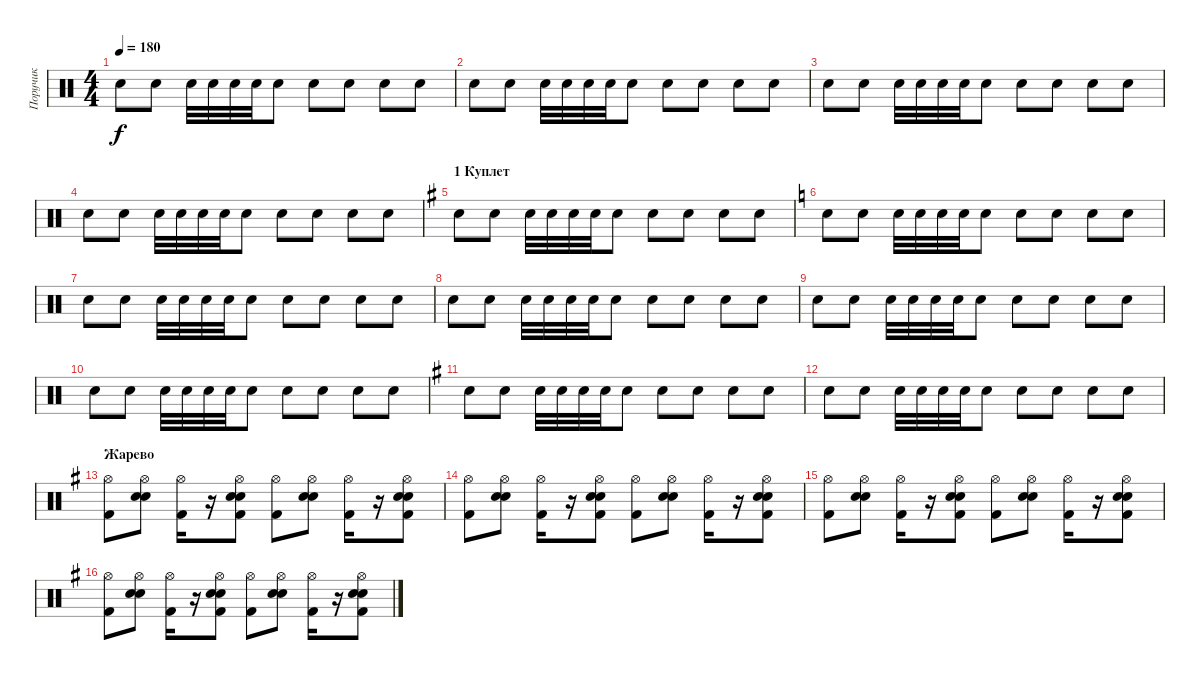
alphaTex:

\track ("Поручик" "Поручик") {instrument percussion}
\staff {score}
\articulation defaults
\ts (4 4)
\tempo 180
\clef neutral
\ks c "Electric Snare (hit)".8{dy f} "Electric Snare (hit)".8 "Electric Snare (hit)".32 "Electric Snare (hit)".32 "Electric Snare (hit)".32 "Electric Snare (hit)".32 "Electric Snare (hit)".8 "Electric Snare (hit)".8 "Electric Snare (hit)".8 "Electric Snare (hit)".8 "Electric Snare (hit)".8
|
"Electric Snare (hit)".8 "Electric Snare (hit)".8 "Electric Snare (hit)".32 "Electric Snare (hit)".32 "Electric Snare (hit)".32 "Electric Snare (hit)".32 "Electric Snare (hit)".8 "Electric Snare (hit)".8 "Electric Snare (hit)".8 "Electric Snare (hit)".8 "Electric Snare (hit)".8 |
"Electric Snare (hit)".8 "Electric Snare (hit)".8 "Electric Snare (hit)".32 "Electric Snare (hit)".32 "Electric Snare (hit)".32 "Electric Snare (hit)".32 "Electric Snare (hit)".8 "Electric Snare (hit)".8 "Electric Snare (hit)".8 "Electric Snare (hit)".8 "Electric Snare (hit)".8 |
"Electric Snare (hit)".8 "Electric Snare (hit)".8 "Electric Snare (hit)".32 "Electric Snare (hit)".32 "Electric Snare (hit)".32 "Electric Snare (hit)".32 "Electric Snare (hit)".8 "Electric Snare (hit)".8 "Electric Snare (hit)".8 "Electric Snare (hit)".8 "Electric Snare (hit)".8 |
\section ("" "1 Куплет")
\ks g "Electric Snare (hit)".8 "Electric Snare (hit)".8 "Electric Snare (hit)".32 "Electric Snare (hit)".32 "Electric Snare (hit)".32 "Electric Snare (hit)".32 "Electric Snare (hit)".8 "Electric Snare (hit)".8 "Electric Snare (hit)".8 "Electric Snare (hit)".8 "Electric Snare (hit)".8
|
\ks c "Electric Snare (hit)".8 "Electric Snare (hit)".8 "Electric Snare (hit)".32 "Electric Snare (hit)".32 "Electric Snare (hit)".32 "Electric Snare (hit)".32 "Electric Snare (hit)".8 "Electric Snare (hit)".8 "Electric Snare (hit)".8 "Electric Snare (hit)".8 "Electric Snare (hit)".8
|
"Electric Snare (hit)".8 "Electric Snare (hit)".8 "Electric Snare (hit)".32 "Electric Snare (hit)".32 "Electric Snare (hit)".32 "Electric Snare (hit)".32 "Electric Snare (hit)".8 "Electric Snare (hit)".8 "Electric Snare (hit)".8 "Electric Snare (hit)".8 "Electric Snare (hit)".8 |
"Electric Snare (hit)".8 "Electric Snare (hit)".8 "Electric Snare (hit)".32 "Electric Snare (hit)".32 "Electric Snare (hit)".32 "Electric Snare (hit)".32 "Electric Snare (hit)".8 "Electric Snare (hit)".8 "Electric Snare (hit)".8 "Electric Snare (hit)".8 "Electric Snare (hit)".8 |
"Electric Snare (hit)".8 "Electric Snare (hit)".8 "Electric Snare (hit)".32 "Electric Snare (hit)".32 "Electric Snare (hit)".32 "Electric Snare (hit)".32 "Electric Snare (hit)".8 "Electric Snare (hit)".8 "Electric Snare (hit)".8 "Electric Snare (hit)".8 "Electric Snare (hit)".8 |
"Electric Snare (hit)".8 "Electric Snare (hit)".8 "Electric Snare (hit)".32 "Electric Snare (hit)".32 "Electric Snare (hit)".32 "Electric Snare (hit)".32 "Electric Snare (hit)".8 "Electric Snare (hit)".8 "Electric Snare (hit)".8 "Electric Snare (hit)".8 "Electric Snare (hit)".8 |
\ks g "Electric Snare (hit)".8 "Electric Snare (hit)".8 "Electric Snare (hit)".32 "Electric Snare (hit)".32 "Electric Snare (hit)".32 "Electric Snare (hit)".32 "Electric Snare (hit)".8 "Electric Snare (hit)".8 "Electric Snare (hit)".8 "Electric Snare (hit)".8 "Electric Snare (hit)".8
|
"Electric Snare (hit)".8 "Electric Snare (hit)".8 "Electric Snare (hit)".32 "Electric Snare (hit)".32 "Electric Snare (hit)".32 "Electric Snare (hit)".32 "Electric Snare (hit)".8 "Electric Snare (hit)".8 "Electric Snare (hit)".8 "Electric Snare (hit)".8 "Electric Snare (hit)".8 |
\section ("" "Жарево")
("Kick (hit) 2" "Hi-Hat (open)").8 ("Hi-Hat (open)" "Electric Snare (hit)" "Electric Snare (hit)").8 ("Kick (hit) 2" "Hi-Hat (open)").16 r.16 ("Kick (hit) 2" "Hi-Hat (open)" "Electric Snare (hit)" "Electric Snare (hit)").8 ("Kick (hit) 2" "Hi-Hat (open)").8 ("Hi-Hat (open)" "Electric Snare (hit)" "Electric Snare (hit)").8 ("Kick (hit) 2" "Hi-Hat (open)").16 r.16 ("Kick (hit) 2" "Hi-Hat (open)" "Electric Snare (hit)" "Electric Snare (hit)").8 |
("Kick (hit) 2" "Hi-Hat (open)").8 ("Hi-Hat (open)" "Electric Snare (hit)" "Electric Snare (hit)").8 ("Kick (hit) 2" "Hi-Hat (open)").16 r.16 ("Kick (hit) 2" "Hi-Hat (open)" "Electric Snare (hit)" "Electric Snare (hit)").8 ("Kick (hit) 2" "Hi-Hat (open)").8 ("Hi-Hat (open)" "Electric Snare (hit)" "Electric Snare (hit)").8 ("Kick (hit) 2" "Hi-Hat (open)").16 r.16 ("Kick (hit) 2" "Hi-Hat (open)" "Electric Snare (hit)" "Electric Snare (hit)").8 |
("Kick (hit) 2" "Hi-Hat (open)").8 ("Hi-Hat (open)" "Electric Snare (hit)" "Electric Snare (hit)").8 ("Kick (hit) 2" "Hi-Hat (open)").16 r.16 ("Kick (hit) 2" "Hi-Hat (open)" "Electric Snare (hit)" "Electric Snare (hit)").8 ("Kick (hit) 2" "Hi-Hat (open)").8 ("Hi-Hat (open)" "Electric Snare (hit)" "Electric Snare (hit)").8 ("Kick (hit) 2" "Hi-Hat (open)").16 r.16 ("Kick (hit) 2" "Hi-Hat (open)" "Electric Snare (hit)" "Electric Snare (hit)").8 |
("Kick (hit) 2" "Hi-Hat (open)").8 ("Hi-Hat (open)" "Electric Snare (hit)" "Electric Snare (hit)").8 ("Kick (hit) 2" "Hi-Hat (open)").16 r.16 ("Kick (hit) 2" "Hi-Hat (open)" "Electric Snare (hit)" "Electric Snare (hit)").8 ("Kick (hit) 2" "Hi-Hat (open)").8 ("Hi-Hat (open)" "Electric Snare (hit)" "Electric Snare (hit)").8 ("Kick (hit) 2" "Hi-Hat (open)").16 r.16 ("Kick (hit) 2" "Hi-Hat (open)" "Electric Snare (hit)" "Electric Snare (hit)").8
